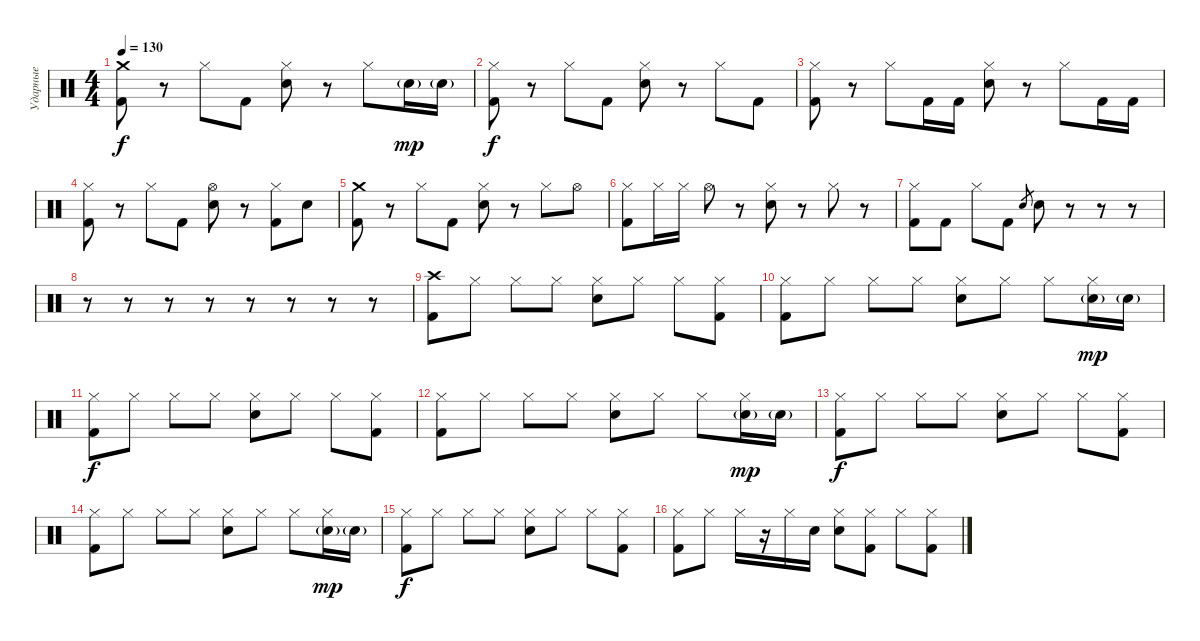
\track ("Ударные" "Ударные") {instrument percussion}
\staff {score}
\articulation defaults
\ts (4 4)
\tempo 130
\clef neutral
\ks c
("Crash medium (hit)" "Kick (hit) 2").8{dy f} r.8 "Hi-Hat (closed)".8 "Kick (hit) 2".8 ("Hi-Hat (closed)" "Electric Snare (hit)").8 r.8 "Hi-Hat (closed)".8 "Electric Snare (hit)"{g}.16{dy mp} "Electric Snare (hit)"{g}.16 |
("Hi-Hat (closed)" "Kick (hit) 2").8{dy f} r.8 "Hi-Hat (closed)".8 "Kick (hit) 2".8 ("Hi-Hat (closed)" "Electric Snare (hit)").8 r.8 "Hi-Hat (closed)".8 "Kick (hit) 2".8 |
("Hi-Hat (closed)" "Kick (hit) 2").8 r.8 "Hi-Hat (closed)".8 "Kick (hit) 2".16 "Kick (hit) 2".16 ("Hi-Hat (closed)" "Electric Snare (hit)").8 r.8 "Hi-Hat (closed)".8 "Kick (hit) 2".16 "Kick (hit) 2".16 |
("Hi-Hat (closed)" "Kick (hit) 2").8 r.8 "Hi-Hat (closed)".8 "Kick (hit) 2".8 ("Hi-Hat (open)" "Electric Snare (hit)").8 r.8 ("Hi-Hat (closed)" "Kick (hit) 2").8 "Electric Snare (hit)".8 |
("Crash medium (hit)" "Kick (hit) 2").8 r.8 "Hi-Hat (closed)".8 "Kick (hit) 2".8 ("Hi-Hat (closed)" "Electric Snare (hit)").8 r.8 "Hi-Hat (closed)".8 "Hi-Hat (open)".8 |
("Hi-Hat (closed)" "Kick (hit) 2").8 "Hi-Hat (closed)".16 "Hi-Hat (closed)".16 "Hi-Hat (open)".8 r.8 ("Hi-Hat (closed)" "Electric Snare (hit)").8 r.8 "Hi-Hat (closed)".8 r.8 |
("Hi-Hat (closed)" "Kick (hit) 2").8 "Kick (hit) 2".8 "Hi-Hat (closed)".8 "Kick (hit) 2".8 "Electric Snare (hit)".8{gr} "Electric Snare (hit)".8 r.8 r.8 r.8 |
r.8 r.8 r.8 r.8 r.8 r.8 r.8 r.8 |
("Crash high (hit)" "Kick (hit) 2").8 "Hi-Hat (closed)".8 "Hi-Hat (closed)".8 "Hi-Hat (closed)".8 ("Hi-Hat (closed)" "Electric Snare (hit)").8 "Hi-Hat (closed)".8 "Hi-Hat (closed)".8 ("Hi-Hat (closed)" "Kick (hit) 2").8 |
("Hi-Hat (closed)" "Kick (hit) 2").8 "Hi-Hat (closed)".8 "Hi-Hat (closed)".8 "Hi-Hat (closed)".8 ("Hi-Hat (closed)" "Electric Snare (hit)").8 "Hi-Hat (closed)".8 "Hi-Hat (closed)".8 ("Hi-Hat (closed)" "Electric Snare (hit)"{g}).16{dy mp} "Electric Snare (hit)"{g}.16 |
("Hi-Hat (closed)" "Kick (hit) 2").8{dy f} "Hi-Hat (closed)".8 "Hi-Hat (closed)".8 "Hi-Hat (closed)".8 ("Hi-Hat (closed)" "Electric Snare (hit)").8 "Hi-Hat (closed)".8 "Hi-Hat (closed)".8 ("Hi-Hat (closed)" "Kick (hit) 2").8 |
("Hi-Hat (closed)" "Kick (hit) 2").8 "Hi-Hat (closed)".8 "Hi-Hat (closed)".8 "Hi-Hat (closed)".8 ("Hi-Hat (closed)" "Electric Snare (hit)").8 "Hi-Hat (closed)".8 "Hi-Hat (closed)".8 ("Hi-Hat (closed)" "Electric Snare (hit)"{g}).16{dy mp} "Electric Snare (hit)"{g}.16 |
("Hi-Hat (closed)" "Kick (hit) 2").8{dy f} "Hi-Hat (closed)".8 "Hi-Hat (closed)".8 "Hi-Hat (closed)".8 ("Hi-Hat (closed)" "Electric Snare (hit)").8 "Hi-Hat (closed)".8 "Hi-Hat (closed)".8 ("Hi-Hat (closed)" "Kick (hit) 2").8 |
("Hi-Hat (closed)" "Kick (hit) 2").8 "Hi-Hat (closed)".8 "Hi-Hat (closed)".8 "Hi-Hat (closed)".8 ("Hi-Hat (closed)" "Electric Snare (hit)").8 "Hi-Hat (closed)".8 "Hi-Hat (closed)".8 ("Hi-Hat (closed)" "Electric Snare (hit)"{g}).16{dy mp} "Electric Snare (hit)"{g}.16 |
("Hi-Hat (closed)" "Kick (hit) 2").8{dy f} "Hi-Hat (closed)".8 "Hi-Hat (closed)".8 "Hi-Hat (closed)".8 ("Hi-Hat (closed)" "Electric Snare (hit)").8 "Hi-Hat (closed)".8 "Hi-Hat (closed)".8 ("Hi-Hat (closed)" "Kick (hit) 2").8 |
("Hi-Hat (closed)" "Kick (hit) 2").8 "Hi-Hat (closed)".8 "Hi-Hat (closed)".16 r.16 "Hi-Hat (closed)".16 "Electric Snare (hit)".16 ("Hi-Hat (closed)" "Electric Snare (hit)").8 ("Hi-Hat (closed)" "Kick (hit) 2").8 "Hi-Hat (closed)".8 ("Hi-Hat (closed)" "Kick (hit) 2").8
